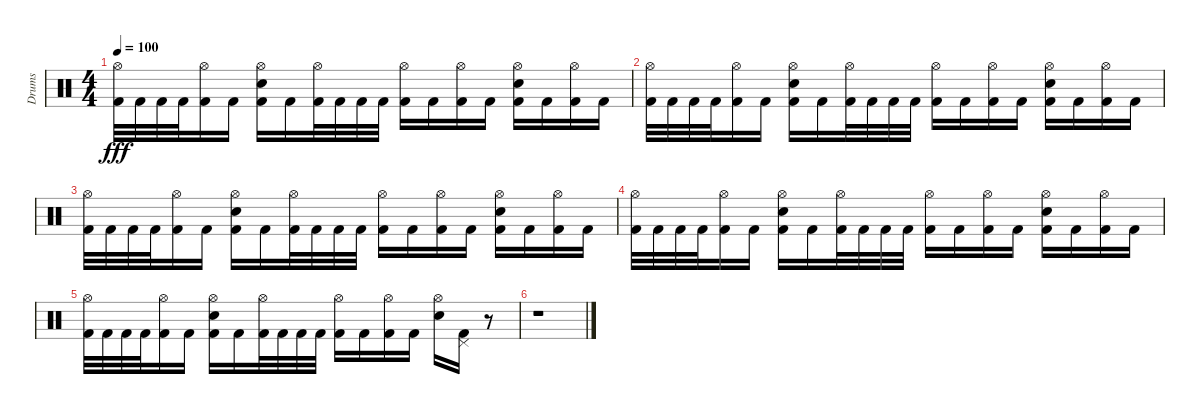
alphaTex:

\track ("Drums" "Drums") {instrument percussion}
\staff {score}
\articulation defaults
\ts (4 4)
\tempo 100
\clef neutral
\ks c
("Hi-Hat (open)" "Kick (hit) 2").32{dy fff} "Kick (hit) 2".32 "Kick (hit) 2".32 "Kick (hit) 2".32 ("Hi-Hat (open)" "Kick (hit) 2").16 "Kick (hit) 2".16 ("Hi-Hat (open)" "Electric Snare (hit)" "Kick (hit) 2").16 "Kick (hit) 2".16 ("Hi-Hat (open)" "Kick (hit) 2").32 "Kick (hit) 2".32 "Kick (hit) 2".32 "Kick (hit) 2".32 ("Hi-Hat (open)" "Kick (hit) 2").16 "Kick (hit) 2".16 ("Hi-Hat (open)" "Kick (hit) 2").16 "Kick (hit) 2".16 ("Hi-Hat (open)" "Electric Snare (hit)" "Kick (hit) 2").16 "Kick (hit) 2".16 ("Hi-Hat (open)" "Kick (hit) 2").16 "Kick (hit) 2".16 |
("Hi-Hat (open)" "Kick (hit) 2").32 "Kick (hit) 2".32 "Kick (hit) 2".32 "Kick (hit) 2".32 ("Hi-Hat (open)" "Kick (hit) 2").16 "Kick (hit) 2".16 ("Hi-Hat (open)" "Electric Snare (hit)" "Kick (hit) 2").16 "Kick (hit) 2".16 ("Hi-Hat (open)" "Kick (hit) 2").32 "Kick (hit) 2".32 "Kick (hit) 2".32 "Kick (hit) 2".32 ("Hi-Hat (open)" "Kick (hit) 2").16 "Kick (hit) 2".16 ("Hi-Hat (open)" "Kick (hit) 2").16 "Kick (hit) 2".16 ("Hi-Hat (open)" "Electric Snare (hit)" "Kick (hit) 2").16 "Kick (hit) 2".16 ("Hi-Hat (open)" "Kick (hit) 2").16 "Kick (hit) 2".16 |
("Hi-Hat (open)" "Kick (hit) 2").32 "Kick (hit) 2".32 "Kick (hit) 2".32 "Kick (hit) 2".32 ("Hi-Hat (open)" "Kick (hit) 2").16 "Kick (hit) 2".16 ("Hi-Hat (open)" "Electric Snare (hit)" "Kick (hit) 2").16 "Kick (hit) 2".16 ("Hi-Hat (open)" "Kick (hit) 2").32 "Kick (hit) 2".32 "Kick (hit) 2".32 "Kick (hit) 2".32 ("Hi-Hat (open)" "Kick (hit) 2").16 "Kick (hit) 2".16 ("Hi-Hat (open)" "Kick (hit) 2").16 "Kick (hit) 2".16 ("Hi-Hat (open)" "Electric Snare (hit)" "Kick (hit) 2").16 "Kick (hit) 2".16 ("Hi-Hat (open)" "Kick (hit) 2").16 "Kick (hit) 2".16 |
("Hi-Hat (open)" "Kick (hit) 2").32 "Kick (hit) 2".32 "Kick (hit) 2".32 "Kick (hit) 2".32 ("Hi-Hat (open)" "Kick (hit) 2").16 "Kick (hit) 2".16 ("Hi-Hat (open)" "Electric Snare (hit)" "Kick (hit) 2").16 "Kick (hit) 2".16 ("Hi-Hat (open)" "Kick (hit) 2").32 "Kick (hit) 2".32 "Kick (hit) 2".32 "Kick (hit) 2".32 ("Hi-Hat (open)" "Kick (hit) 2").16 "Kick (hit) 2".16 ("Hi-Hat (open)" "Kick (hit) 2").16 "Kick (hit) 2".16 ("Hi-Hat (open)" "Electric Snare (hit)" "Kick (hit) 2").16 "Kick (hit) 2".16 ("Hi-Hat (open)" "Kick (hit) 2").16 "Kick (hit) 2".16 |
("Hi-Hat (open)" "Kick (hit) 2").32 "Kick (hit) 2".32 "Kick (hit) 2".32 "Kick (hit) 2".32 ("Hi-Hat (open)" "Kick (hit) 2").16 "Kick (hit) 2".16 ("Hi-Hat (open)" "Electric Snare (hit)" "Kick (hit) 2").16 "Kick (hit) 2".16 ("Hi-Hat (open)" "Kick (hit) 2").32 "Kick (hit) 2".32 "Kick (hit) 2".32 "Kick (hit) 2".32 ("Hi-Hat (open)" "Kick (hit) 2").16 "Kick (hit) 2".16 ("Hi-Hat (open)" "Kick (hit) 2").16 "Kick (hit) 2".16 ("Hi-Hat (open)" "Electric Snare (hit)").16 ("Pedal Hi-Hat (hit)" "Kick (hit) 2").16 r.8 |
r.1
